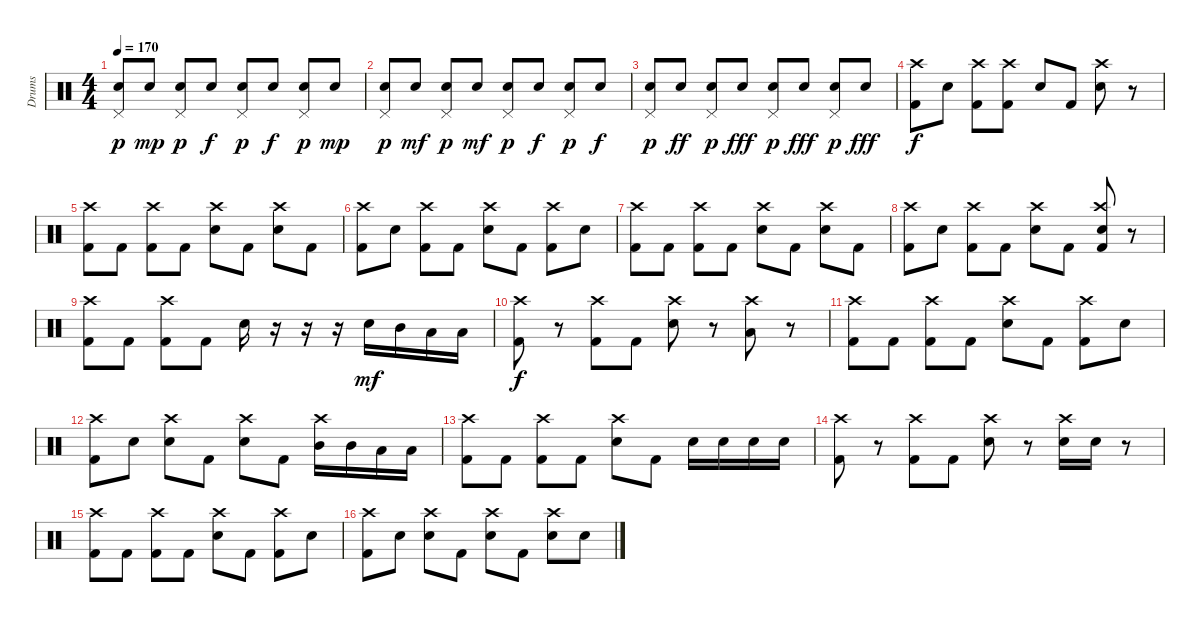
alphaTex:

\track ("Drums" "Drums") {instrument percussion}
\staff {score}
\articulation defaults
\ts (4 4)
\tempo 170
\clef neutral
\ks c
("Snare (hit) 2" "Pedal Hi-Hat (hit)").8{dy p} "Snare (hit) 2".8{dy mp} ("Snare (hit) 2" "Pedal Hi-Hat (hit)").8{dy p} "Snare (hit) 2".8{dy f} ("Snare (hit) 2" "Pedal Hi-Hat (hit)").8{dy p} "Snare (hit) 2".8{dy f} ("Snare (hit) 2" "Pedal Hi-Hat (hit)").8{dy p} "Snare (hit) 2".8{dy mp} |
("Snare (hit) 2" "Pedal Hi-Hat (hit)").8{dy p} "Snare (hit) 2".8{dy mf} ("Snare (hit) 2" "Pedal Hi-Hat (hit)").8{dy p} "Snare (hit) 2".8{dy mf} ("Snare (hit) 2" "Pedal Hi-Hat (hit)").8{dy p} "Snare (hit) 2".8{dy f} ("Snare (hit) 2" "Pedal Hi-Hat (hit)").8{dy p} "Snare (hit) 2".8{dy f} |
("Snare (hit) 2" "Pedal Hi-Hat (hit)").8{dy p} "Snare (hit) 2".8{dy ff} ("Snare (hit) 2" "Pedal Hi-Hat (hit)").8{dy p} "Snare (hit) 2".8{dy fff} ("Snare (hit) 2" "Pedal Hi-Hat (hit)").8{dy p} "Snare (hit) 2".8{dy fff} ("Snare (hit) 2" "Pedal Hi-Hat (hit)").8{dy p} "Snare (hit) 2".8{dy fff} |
("Crash high (hit)" "Kick (hit) 2").8{dy f} "Snare (hit) 2".8 ("Crash high (hit)" "Kick (hit) 2").8 ("Crash high (hit)" "Kick (hit) 2").8 "Snare (hit) 2".8 "Kick (hit) 2".8 ("Crash high (hit)" "Snare (hit) 2").8 r.8 |
("Crash high (hit)" "Kick (hit) 2").8 "Kick (hit) 2".8 ("Crash high (hit)" "Kick (hit) 2").8 "Kick (hit) 2".8 ("Crash high (hit)" "Snare (hit) 2").8 "Kick (hit) 2".8 ("Crash high (hit)" "Snare (hit) 2").8 "Kick (hit) 2".8 |
("Crash high (hit)" "Kick (hit) 2").8 "Snare (hit) 2".8 ("Crash high (hit)" "Kick (hit) 2").8 "Kick (hit) 2".8 ("Crash high (hit)" "Snare (hit) 2").8 "Kick (hit) 2".8 ("Crash high (hit)" "Kick (hit) 2").8 "Snare (hit) 2".8 |
("Crash high (hit)" "Kick (hit) 2").8 "Kick (hit) 2".8 ("Crash high (hit)" "Kick (hit) 2").8 "Kick (hit) 2".8 ("Crash high (hit)" "Snare (hit) 2").8 "Kick (hit) 2".8 ("Crash high (hit)" "Snare (hit) 2").8 "Kick (hit) 2".8 |
("Crash high (hit)" "Kick (hit) 2").8 "Snare (hit) 2".8 ("Crash high (hit)" "Kick (hit) 2").8 "Kick (hit) 2".8 ("Crash high (hit)" "Snare (hit) 2").8 "Kick (hit) 2".8 ("Crash high (hit)" "Snare (hit) 2" "Kick (hit) 2").8 r.8 |
("Crash high (hit)" "Kick (hit) 2").8 "Kick (hit) 2".8 ("Crash high (hit)" "Kick (hit) 2").8 "Kick (hit) 2".8 "Snare (hit) 2".16 r.16 r.16 r.16 "Snare (hit) 2".16{dy mf} "Mid Tom (hit)".16 "Low Floor Tom (hit)".16 "Low Floor Tom (hit)".16 |
("Crash high (hit)" "Kick (hit) 2").8{dy f} r.8 ("Crash high (hit)" "Kick (hit) 2").8 "Kick (hit) 2".8 ("Crash high (hit)" "Snare (hit) 2").8 r.8 ("Crash high (hit)" "Low Floor Tom (hit)").8 r.8 |
("Crash high (hit)" "Kick (hit) 2").8 "Kick (hit) 2".8 ("Crash high (hit)" "Kick (hit) 2").8 "Kick (hit) 2".8 ("Crash high (hit)" "Snare (hit) 2").8 "Kick (hit) 2".8 ("Crash high (hit)" "Kick (hit) 2").8 "Snare (hit) 2".8 |
("Crash high (hit)" "Kick (hit) 2").8 "Snare (hit) 2".8 ("Crash high (hit)" "Snare (hit) 2").8 "Kick (hit) 2".8 ("Crash high (hit)" "Snare (hit) 2").8 "Kick (hit) 2".8 ("Crash high (hit)" "Mid Tom (hit)").16 "Mid Tom (hit)".16 "Low Floor Tom (hit)".16 "Low Floor Tom (hit)".16 |
("Crash high (hit)" "Kick (hit) 2").8 "Kick (hit) 2".8 ("Crash high (hit)" "Kick (hit) 2").8 "Kick (hit) 2".8 ("Crash high (hit)" "Snare (hit) 2").8 "Kick (hit) 2".8 "Snare (hit) 2".16 "Snare (hit) 2".16 "Snare (hit) 2".16 "Snare (hit) 2".16 |
("Crash high (hit)" "Kick (hit) 2").8 r.8 ("Crash high (hit)" "Kick (hit) 2").8 "Kick (hit) 2".8 ("Crash high (hit)" "Snare (hit) 2").8 r.8 ("Crash high (hit)" "Snare (hit) 2").16 "Snare (hit) 2".16 r.8 |
("Crash high (hit)" "Kick (hit) 2").8 "Kick (hit) 2".8 ("Crash high (hit)" "Kick (hit) 2").8 "Kick (hit) 2".8 ("Crash high (hit)" "Snare (hit) 2").8 "Kick (hit) 2".8 ("Crash high (hit)" "Kick (hit) 2").8 "Snare (hit) 2".8 |
("Crash high (hit)" "Kick (hit) 2").8 "Snare (hit) 2".8 ("Crash high (hit)" "Snare (hit) 2").8 "Kick (hit) 2".8 ("Crash high (hit)" "Snare (hit) 2").8 "Kick (hit) 2".8 ("Crash high (hit)" "Snare (hit) 2").8 "Snare (hit) 2".8
